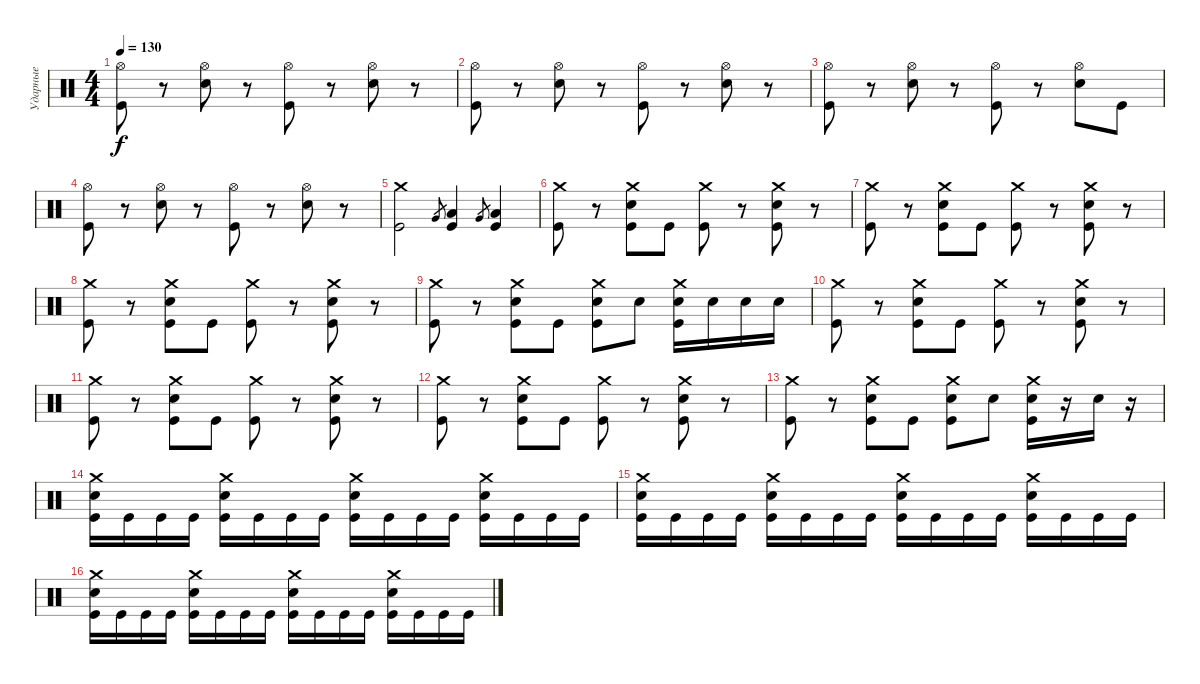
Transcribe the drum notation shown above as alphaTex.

\track ("Ударные" "Ударные") {instrument percussion}
\staff {score}
\articulation defaults
\ts (4 4)
\tempo 130
\clef neutral
\ks c
("Hi-Hat (open)" "Kick (hit)").8{dy f} r.8 ("Hi-Hat (open)" "Electric Snare (hit)").8 r.8 ("Hi-Hat (open)" "Kick (hit)").8 r.8 ("Hi-Hat (open)" "Electric Snare (hit)").8 r.8 |
("Hi-Hat (open)" "Kick (hit)").8 r.8 ("Hi-Hat (open)" "Electric Snare (hit)").8 r.8 ("Hi-Hat (open)" "Kick (hit)").8 r.8 ("Hi-Hat (open)" "Electric Snare (hit)").8 r.8 |
("Hi-Hat (open)" "Kick (hit)").8 r.8 ("Hi-Hat (open)" "Electric Snare (hit)").8 r.8 ("Hi-Hat (open)" "Kick (hit)").8 r.8 ("Hi-Hat (open)" "Electric Snare (hit)").8 "Kick (hit)".8 |
("Hi-Hat (open)" "Kick (hit)").8 r.8 ("Hi-Hat (open)" "Electric Snare (hit)").8 r.8 ("Hi-Hat (open)" "Kick (hit)").8 r.8 ("Hi-Hat (open)" "Electric Snare (hit)").8 r.8 |
("Crash medium (hit)" "Kick (hit)").2 "Very Low Tom (hit)".8{gr} ("Low Floor Tom (hit)" "Kick (hit)").4 "Very Low Tom (hit)".8{gr} ("Low Floor Tom (hit)" "Kick (hit)").4 |
("Crash medium (hit)" "Kick (hit)").8 r.8 ("Crash medium (hit)" "Electric Snare (hit)" "Kick (hit)").8 "Kick (hit)".8 ("Crash medium (hit)" "Kick (hit)").8 r.8 ("Crash medium (hit)" "Electric Snare (hit)" "Kick (hit)").8 r.8 |
("Crash medium (hit)" "Kick (hit)").8 r.8 ("Crash medium (hit)" "Electric Snare (hit)" "Kick (hit)").8 "Kick (hit)".8 ("Crash medium (hit)" "Kick (hit)").8 r.8 ("Crash medium (hit)" "Electric Snare (hit)" "Kick (hit)").8 r.8 |
("Crash medium (hit)" "Kick (hit)").8 r.8 ("Crash medium (hit)" "Electric Snare (hit)" "Kick (hit)").8 "Kick (hit)".8 ("Crash medium (hit)" "Kick (hit)").8 r.8 ("Crash medium (hit)" "Electric Snare (hit)" "Kick (hit)").8 r.8 |
("Crash medium (hit)" "Kick (hit)").8 r.8 ("Crash medium (hit)" "Electric Snare (hit)" "Kick (hit)").8 "Kick (hit)".8 ("Crash medium (hit)" "Electric Snare (hit)" "Kick (hit)").8 "Electric Snare (hit)".8 ("Crash medium (hit)" "Electric Snare (hit)" "Kick (hit)").16 "Electric Snare (hit)".16 "Electric Snare (hit)".16 "Electric Snare (hit)".16 |
("Crash medium (hit)" "Kick (hit)").8 r.8 ("Crash medium (hit)" "Electric Snare (hit)" "Kick (hit)").8 "Kick (hit)".8 ("Crash medium (hit)" "Kick (hit)").8 r.8 ("Crash medium (hit)" "Electric Snare (hit)" "Kick (hit)").8 r.8 |
("Crash medium (hit)" "Kick (hit)").8 r.8 ("Crash medium (hit)" "Electric Snare (hit)" "Kick (hit)").8 "Kick (hit)".8 ("Crash medium (hit)" "Kick (hit)").8 r.8 ("Crash medium (hit)" "Electric Snare (hit)" "Kick (hit)").8 r.8 |
("Crash medium (hit)" "Kick (hit)").8 r.8 ("Crash medium (hit)" "Electric Snare (hit)" "Kick (hit)").8 "Kick (hit)".8 ("Crash medium (hit)" "Kick (hit)").8 r.8 ("Crash medium (hit)" "Electric Snare (hit)" "Kick (hit)").8 r.8 |
("Crash medium (hit)" "Kick (hit)").8 r.8 ("Crash medium (hit)" "Electric Snare (hit)" "Kick (hit)").8 "Kick (hit)".8 ("Crash medium (hit)" "Electric Snare (hit)" "Kick (hit)").8 "Electric Snare (hit)".8 ("Crash medium (hit)" "Electric Snare (hit)" "Kick (hit)").16 r.16 "Electric Snare (hit)".16 r.16 |
("Crash medium (hit)" "Electric Snare (hit)" "Kick (hit)").16 "Kick (hit)".16 "Kick (hit)".16 "Kick (hit)".16 ("Crash medium (hit)" "Electric Snare (hit)" "Kick (hit)").16 "Kick (hit)".16 "Kick (hit)".16 "Kick (hit)".16 ("Crash medium (hit)" "Electric Snare (hit)" "Kick (hit)").16 "Kick (hit)".16 "Kick (hit)".16 "Kick (hit)".16 ("Crash medium (hit)" "Electric Snare (hit)" "Kick (hit)").16 "Kick (hit)".16 "Kick (hit)".16 "Kick (hit)".16 |
("Crash medium (hit)" "Electric Snare (hit)" "Kick (hit)").16 "Kick (hit)".16 "Kick (hit)".16 "Kick (hit)".16 ("Crash medium (hit)" "Electric Snare (hit)" "Kick (hit)").16 "Kick (hit)".16 "Kick (hit)".16 "Kick (hit)".16 ("Crash medium (hit)" "Electric Snare (hit)" "Kick (hit)").16 "Kick (hit)".16 "Kick (hit)".16 "Kick (hit)".16 ("Crash medium (hit)" "Electric Snare (hit)" "Kick (hit)").16 "Kick (hit)".16 "Kick (hit)".16 "Kick (hit)".16 |
("Crash medium (hit)" "Electric Snare (hit)" "Kick (hit)").16 "Kick (hit)".16 "Kick (hit)".16 "Kick (hit)".16 ("Crash medium (hit)" "Electric Snare (hit)" "Kick (hit)").16 "Kick (hit)".16 "Kick (hit)".16 "Kick (hit)".16 ("Crash medium (hit)" "Electric Snare (hit)" "Kick (hit)").16 "Kick (hit)".16 "Kick (hit)".16 "Kick (hit)".16 ("Crash medium (hit)" "Electric Snare (hit)" "Kick (hit)").16 "Kick (hit)".16 "Kick (hit)".16 "Kick (hit)".16
